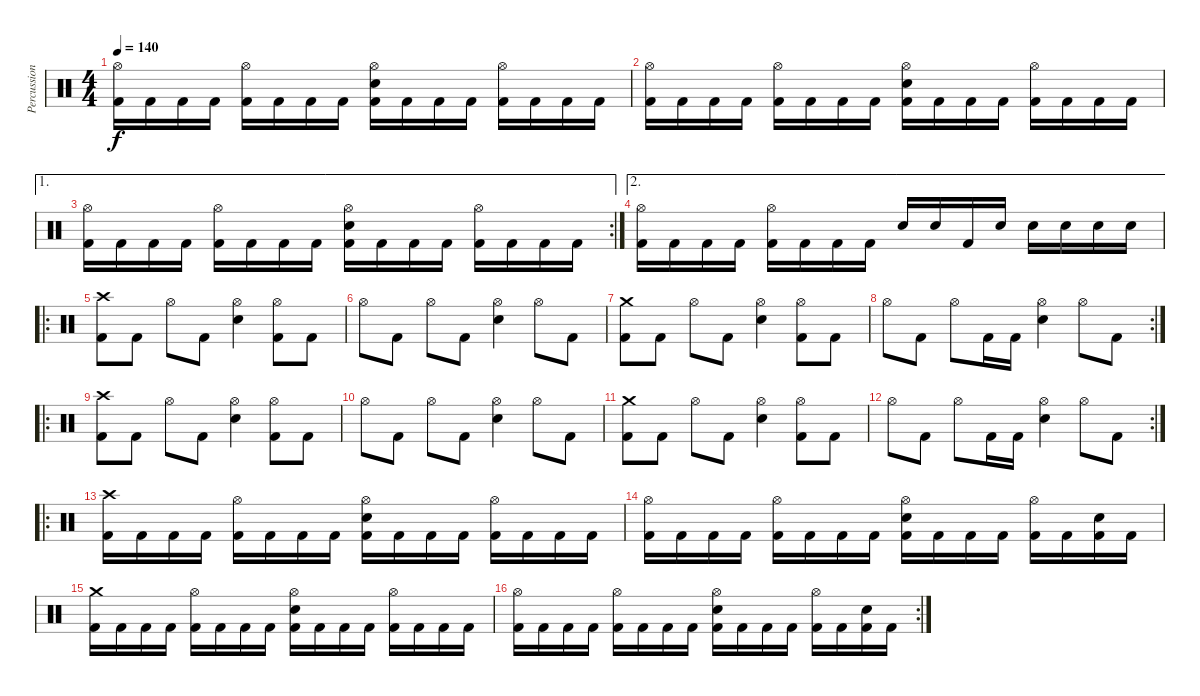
\track ("Percussion" "Percussion") {instrument percussion}
\staff {score}
\articulation defaults
\ts (4 4)
\tempo 140
\clef neutral
\ks c
("Hi-Hat (open)" "Kick (hit) 2").16{dy f} "Kick (hit) 2".16 "Kick (hit) 2".16 "Kick (hit) 2".16 ("Hi-Hat (open)" "Kick (hit) 2").16 "Kick (hit) 2".16 "Kick (hit) 2".16 "Kick (hit) 2".16 ("Hi-Hat (open)" "Electric Snare (hit)" "Kick (hit) 2").16 "Kick (hit) 2".16 "Kick (hit) 2".16 "Kick (hit) 2".16 ("Hi-Hat (open)" "Kick (hit) 2").16 "Kick (hit) 2".16 "Kick (hit) 2".16 "Kick (hit) 2".16 |
("Hi-Hat (open)" "Kick (hit) 2").16 "Kick (hit) 2".16 "Kick (hit) 2".16 "Kick (hit) 2".16 ("Hi-Hat (open)" "Kick (hit) 2").16 "Kick (hit) 2".16 "Kick (hit) 2".16 "Kick (hit) 2".16 ("Hi-Hat (open)" "Electric Snare (hit)" "Kick (hit) 2").16 "Kick (hit) 2".16 "Kick (hit) 2".16 "Kick (hit) 2".16 ("Hi-Hat (open)" "Kick (hit) 2").16 "Kick (hit) 2".16 "Kick (hit) 2".16 "Kick (hit) 2".16 |
\ae 1
\rc 2
("Hi-Hat (open)" "Kick (hit) 2").16 "Kick (hit) 2".16 "Kick (hit) 2".16 "Kick (hit) 2".16 ("Hi-Hat (open)" "Kick (hit) 2").16 "Kick (hit) 2".16 "Kick (hit) 2".16 "Kick (hit) 2".16 ("Hi-Hat (open)" "Electric Snare (hit)" "Kick (hit) 2").16 "Kick (hit) 2".16 "Kick (hit) 2".16 "Kick (hit) 2".16 ("Hi-Hat (open)" "Kick (hit) 2").16 "Kick (hit) 2".16 "Kick (hit) 2".16 "Kick (hit) 2".16 |
\ae 2
("Hi-Hat (open)" "Kick (hit) 2").16 "Kick (hit) 2".16 "Kick (hit) 2".16 "Kick (hit) 2".16 ("Hi-Hat (open)" "Kick (hit) 2").16 "Kick (hit) 2".16 "Kick (hit) 2".16 "Kick (hit) 2".16 "Electric Snare (hit)".16 "Electric Snare (hit)".16 "Kick (hit) 2".16 "Electric Snare (hit)".16 "Electric Snare (hit)".16 "Electric Snare (hit)".16 "Electric Snare (hit)".16 "Electric Snare (hit)".16 |
\ro
("Crash high (hit)" "Kick (hit) 2").8 "Kick (hit) 2".8 "Hi-Hat (open)".8 "Kick (hit) 2".8 ("Hi-Hat (open)" "Electric Snare (hit)").4 ("Hi-Hat (open)" "Kick (hit) 2").8 "Kick (hit) 2".8 |
"Hi-Hat (open)".8 "Kick (hit) 2".8 "Hi-Hat (open)".8 "Kick (hit) 2".8 ("Hi-Hat (open)" "Electric Snare (hit)").4 "Hi-Hat (open)".8 "Kick (hit) 2".8 |
("Crash medium (hit)" "Kick (hit) 2").8 "Kick (hit) 2".8 "Hi-Hat (open)".8 "Kick (hit) 2".8 ("Hi-Hat (open)" "Electric Snare (hit)").4 ("Hi-Hat (open)" "Kick (hit) 2").8 "Kick (hit) 2".8 |
\rc 2 "Hi-Hat (open)".8 "Kick (hit) 2".8 "Hi-Hat (open)".8 "Kick (hit) 2".16 "Kick (hit) 2".16
("Hi-Hat (open)" "Electric Snare (hit)").4 "Hi-Hat (open)".8 "Kick (hit) 2".8 |
\ro
("Crash high (hit)" "Kick (hit) 2").8 "Kick (hit) 2".8 "Hi-Hat (open)".8 "Kick (hit) 2".8 ("Hi-Hat (open)" "Electric Snare (hit)").4 ("Hi-Hat (open)" "Kick (hit) 2").8 "Kick (hit) 2".8 |
"Hi-Hat (open)".8 "Kick (hit) 2".8 "Hi-Hat (open)".8 "Kick (hit) 2".8 ("Hi-Hat (open)" "Electric Snare (hit)").4 "Hi-Hat (open)".8 "Kick (hit) 2".8 |
("Crash medium (hit)" "Kick (hit) 2").8 "Kick (hit) 2".8 "Hi-Hat (open)".8 "Kick (hit) 2".8 ("Hi-Hat (open)" "Electric Snare (hit)").4 ("Hi-Hat (open)" "Kick (hit) 2").8 "Kick (hit) 2".8 |
\rc 2 "Hi-Hat (open)".8 "Kick (hit) 2".8 "Hi-Hat (open)".8 "Kick (hit) 2".16 "Kick (hit) 2".16
("Hi-Hat (open)" "Electric Snare (hit)").4 "Hi-Hat (open)".8 "Kick (hit) 2".8 |
\ro
("Crash high (hit)" "Kick (hit) 2").16 "Kick (hit) 2".16 "Kick (hit) 2".16 "Kick (hit) 2".16 ("Hi-Hat (open)" "Kick (hit) 2").16 "Kick (hit) 2".16 "Kick (hit) 2".16 "Kick (hit) 2".16 ("Hi-Hat (open)" "Electric Snare (hit)" "Kick (hit) 2").16 "Kick (hit) 2".16 "Kick (hit) 2".16 "Kick (hit) 2".16 ("Hi-Hat (open)" "Kick (hit) 2").16 "Kick (hit) 2".16 "Kick (hit) 2".16 "Kick (hit) 2".16 |
("Hi-Hat (open)" "Kick (hit) 2").16 "Kick (hit) 2".16 "Kick (hit) 2".16 "Kick (hit) 2".16 ("Hi-Hat (open)" "Kick (hit) 2").16 "Kick (hit) 2".16 "Kick (hit) 2".16 "Kick (hit) 2".16 ("Hi-Hat (open)" "Electric Snare (hit)" "Kick (hit) 2").16 "Kick (hit) 2".16 "Kick (hit) 2".16 "Kick (hit) 2".16 ("Hi-Hat (open)" "Kick (hit) 2").16 "Kick (hit) 2".16 ("Electric Snare (hit)" "Kick (hit) 2").16 "Kick (hit) 2".16 |
("Crash medium (hit)" "Kick (hit) 2").16 "Kick (hit) 2".16 "Kick (hit) 2".16 "Kick (hit) 2".16 ("Hi-Hat (open)" "Kick (hit) 2").16 "Kick (hit) 2".16 "Kick (hit) 2".16 "Kick (hit) 2".16 ("Hi-Hat (open)" "Electric Snare (hit)" "Kick (hit) 2").16 "Kick (hit) 2".16 "Kick (hit) 2".16 "Kick (hit) 2".16 ("Hi-Hat (open)" "Kick (hit) 2").16 "Kick (hit) 2".16 "Kick (hit) 2".16 "Kick (hit) 2".16 |
\rc 2
("Hi-Hat (open)" "Kick (hit) 2").16 "Kick (hit) 2".16 "Kick (hit) 2".16 "Kick (hit) 2".16 ("Hi-Hat (open)" "Kick (hit) 2").16 "Kick (hit) 2".16 "Kick (hit) 2".16 "Kick (hit) 2".16 ("Hi-Hat (open)" "Electric Snare (hit)" "Kick (hit) 2").16 "Kick (hit) 2".16 "Kick (hit) 2".16 "Kick (hit) 2".16 ("Hi-Hat (open)" "Kick (hit) 2").16 "Kick (hit) 2".16 ("Electric Snare (hit)" "Kick (hit) 2").16 "Kick (hit) 2".16
